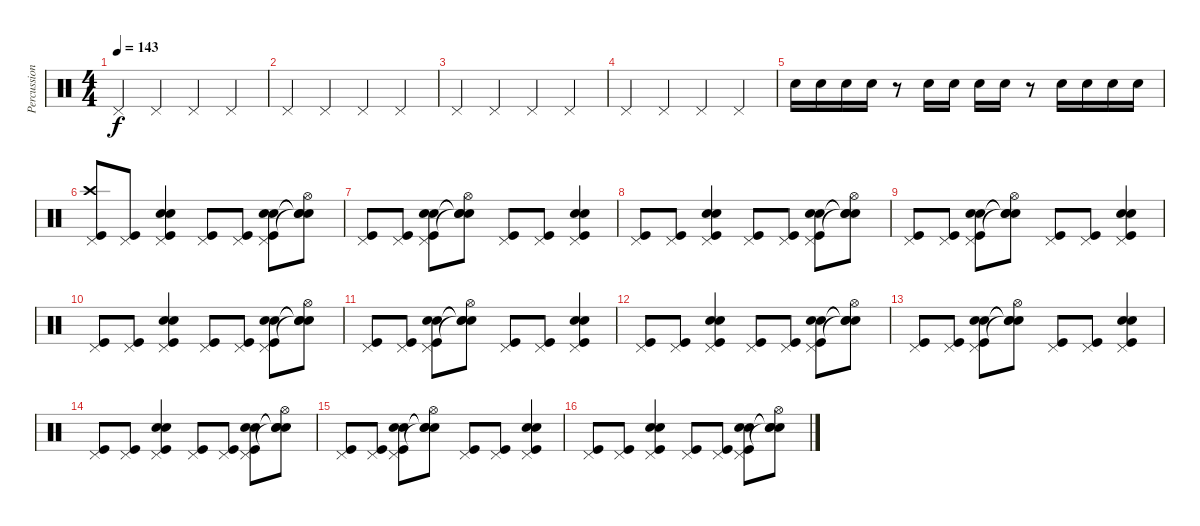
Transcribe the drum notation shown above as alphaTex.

\track ("Percussions" "Percussion") {instrument percussion}
\staff {score}
\articulation defaults
\ts (4 4)
\tempo 143
\clef neutral
\ks c "Pedal Hi-Hat (hit)".4{dy f} "Pedal Hi-Hat (hit)".4 "Pedal Hi-Hat (hit)".4 "Pedal Hi-Hat (hit)".4
|
"Pedal Hi-Hat (hit)".4 "Pedal Hi-Hat (hit)".4 "Pedal Hi-Hat (hit)".4 "Pedal Hi-Hat (hit)".4 |
"Pedal Hi-Hat (hit)".4 "Pedal Hi-Hat (hit)".4 "Pedal Hi-Hat (hit)".4 "Pedal Hi-Hat (hit)".4 |
"Pedal Hi-Hat (hit)".4 "Pedal Hi-Hat (hit)".4 "Pedal Hi-Hat (hit)".4 "Pedal Hi-Hat (hit)".4 |
"Snare (hit) 2".16 "Snare (hit) 2".16 "Snare (hit) 2".16 "Snare (hit) 2".16 r.8 "Snare (hit) 2".16 "Snare (hit) 2".16 "Snare (hit) 2".16 "Snare (hit) 2".16 r.8 "Snare (hit) 2".16 "Snare (hit) 2".16 "Snare (hit) 2".16 "Snare (hit) 2".16 |
("Pedal Hi-Hat (hit)" "Crash high (hit)" "Kick (hit)").8 ("Pedal Hi-Hat (hit)" "Kick (hit)").8 ("Pedal Hi-Hat (hit)" "Snare (hit) 2" "Snare (hit) 2" "Kick (hit)").4 ("Pedal Hi-Hat (hit)" "Kick (hit)").8 ("Pedal Hi-Hat (hit)" "Kick (hit)").8 ("Pedal Hi-Hat (hit)" "Snare (hit) 2" "Snare (hit) 2" "Kick (hit)").8 ("Hi-Hat (open)" "Snare (hit)"{t} "Snare (hit)"{t} "Snare (hit)"{t}).8 |
("Pedal Hi-Hat (hit)" "Kick (hit)").8 ("Pedal Hi-Hat (hit)" "Kick (hit)").8 ("Pedal Hi-Hat (hit)" "Snare (hit) 2" "Snare (hit) 2" "Kick (hit)").8 ("Hi-Hat (open)" "Snare (hit)"{t} "Snare (hit)"{t} "Snare (hit)"{t}).8 ("Pedal Hi-Hat (hit)" "Kick (hit)").8 ("Pedal Hi-Hat (hit)" "Kick (hit)").8 ("Pedal Hi-Hat (hit)" "Snare (hit) 2" "Snare (hit) 2" "Kick (hit)").4 |
("Pedal Hi-Hat (hit)" "Kick (hit)").8 ("Pedal Hi-Hat (hit)" "Kick (hit)").8 ("Pedal Hi-Hat (hit)" "Snare (hit) 2" "Snare (hit) 2" "Kick (hit)").4 ("Pedal Hi-Hat (hit)" "Kick (hit)").8 ("Pedal Hi-Hat (hit)" "Kick (hit)").8 ("Pedal Hi-Hat (hit)" "Snare (hit) 2" "Snare (hit) 2" "Kick (hit)").8 ("Hi-Hat (open)" "Snare (hit)"{t} "Snare (hit)"{t} "Snare (hit)"{t}).8 |
("Pedal Hi-Hat (hit)" "Kick (hit)").8 ("Pedal Hi-Hat (hit)" "Kick (hit)").8 ("Pedal Hi-Hat (hit)" "Snare (hit) 2" "Snare (hit) 2" "Kick (hit)").8 ("Hi-Hat (open)" "Snare (hit)"{t} "Snare (hit)"{t} "Snare (hit)"{t}).8 ("Pedal Hi-Hat (hit)" "Kick (hit)").8 ("Pedal Hi-Hat (hit)" "Kick (hit)").8 ("Pedal Hi-Hat (hit)" "Snare (hit) 2" "Snare (hit) 2" "Kick (hit)").4 |
("Pedal Hi-Hat (hit)" "Kick (hit)").8 ("Pedal Hi-Hat (hit)" "Kick (hit)").8 ("Pedal Hi-Hat (hit)" "Snare (hit) 2" "Snare (hit) 2" "Kick (hit)").4 ("Pedal Hi-Hat (hit)" "Kick (hit)").8 ("Pedal Hi-Hat (hit)" "Kick (hit)").8 ("Pedal Hi-Hat (hit)" "Snare (hit) 2" "Snare (hit) 2" "Kick (hit)").8 ("Hi-Hat (open)" "Snare (hit)"{t} "Snare (hit)"{t} "Snare (hit)"{t}).8 |
("Pedal Hi-Hat (hit)" "Kick (hit)").8 ("Pedal Hi-Hat (hit)" "Kick (hit)").8 ("Pedal Hi-Hat (hit)" "Snare (hit) 2" "Snare (hit) 2" "Kick (hit)").8 ("Hi-Hat (open)" "Snare (hit)"{t} "Snare (hit)"{t} "Snare (hit)"{t}).8 ("Pedal Hi-Hat (hit)" "Kick (hit)").8 ("Pedal Hi-Hat (hit)" "Kick (hit)").8 ("Pedal Hi-Hat (hit)" "Snare (hit) 2" "Snare (hit) 2" "Kick (hit)").4 |
("Pedal Hi-Hat (hit)" "Kick (hit)").8 ("Pedal Hi-Hat (hit)" "Kick (hit)").8 ("Pedal Hi-Hat (hit)" "Snare (hit) 2" "Snare (hit) 2" "Kick (hit)").4 ("Pedal Hi-Hat (hit)" "Kick (hit)").8 ("Pedal Hi-Hat (hit)" "Kick (hit)").8 ("Pedal Hi-Hat (hit)" "Snare (hit) 2" "Snare (hit) 2" "Kick (hit)").8 ("Hi-Hat (open)" "Snare (hit)"{t} "Snare (hit)"{t} "Snare (hit)"{t}).8 |
("Pedal Hi-Hat (hit)" "Kick (hit)").8 ("Pedal Hi-Hat (hit)" "Kick (hit)").8 ("Pedal Hi-Hat (hit)" "Snare (hit) 2" "Snare (hit) 2" "Kick (hit)").8 ("Hi-Hat (open)" "Snare (hit)"{t} "Snare (hit)"{t} "Snare (hit)"{t}).8 ("Pedal Hi-Hat (hit)" "Kick (hit)").8 ("Pedal Hi-Hat (hit)" "Kick (hit)").8 ("Pedal Hi-Hat (hit)" "Snare (hit) 2" "Snare (hit) 2" "Kick (hit)").4 |
("Pedal Hi-Hat (hit)" "Kick (hit)").8 ("Pedal Hi-Hat (hit)" "Kick (hit)").8 ("Pedal Hi-Hat (hit)" "Snare (hit) 2" "Snare (hit) 2" "Kick (hit)").4 ("Pedal Hi-Hat (hit)" "Kick (hit)").8 ("Pedal Hi-Hat (hit)" "Kick (hit)").8 ("Pedal Hi-Hat (hit)" "Snare (hit) 2" "Snare (hit) 2" "Kick (hit)").8 ("Hi-Hat (open)" "Snare (hit)"{t} "Snare (hit)"{t} "Snare (hit)"{t}).8 |
("Pedal Hi-Hat (hit)" "Kick (hit)").8 ("Pedal Hi-Hat (hit)" "Kick (hit)").8 ("Pedal Hi-Hat (hit)" "Snare (hit) 2" "Snare (hit) 2" "Kick (hit)").8 ("Hi-Hat (open)" "Snare (hit)"{t} "Snare (hit)"{t} "Snare (hit)"{t}).8 ("Pedal Hi-Hat (hit)" "Kick (hit)").8 ("Pedal Hi-Hat (hit)" "Kick (hit)").8 ("Pedal Hi-Hat (hit)" "Snare (hit) 2" "Snare (hit) 2" "Kick (hit)").4 |
("Pedal Hi-Hat (hit)" "Kick (hit)").8 ("Pedal Hi-Hat (hit)" "Kick (hit)").8 ("Pedal Hi-Hat (hit)" "Snare (hit) 2" "Snare (hit) 2" "Kick (hit)").4 ("Pedal Hi-Hat (hit)" "Kick (hit)").8 ("Pedal Hi-Hat (hit)" "Kick (hit)").8 ("Pedal Hi-Hat (hit)" "Snare (hit) 2" "Snare (hit) 2" "Kick (hit)").8 ("Hi-Hat (open)" "Snare (hit)"{t} "Snare (hit)"{t} "Snare (hit)"{t}).8
